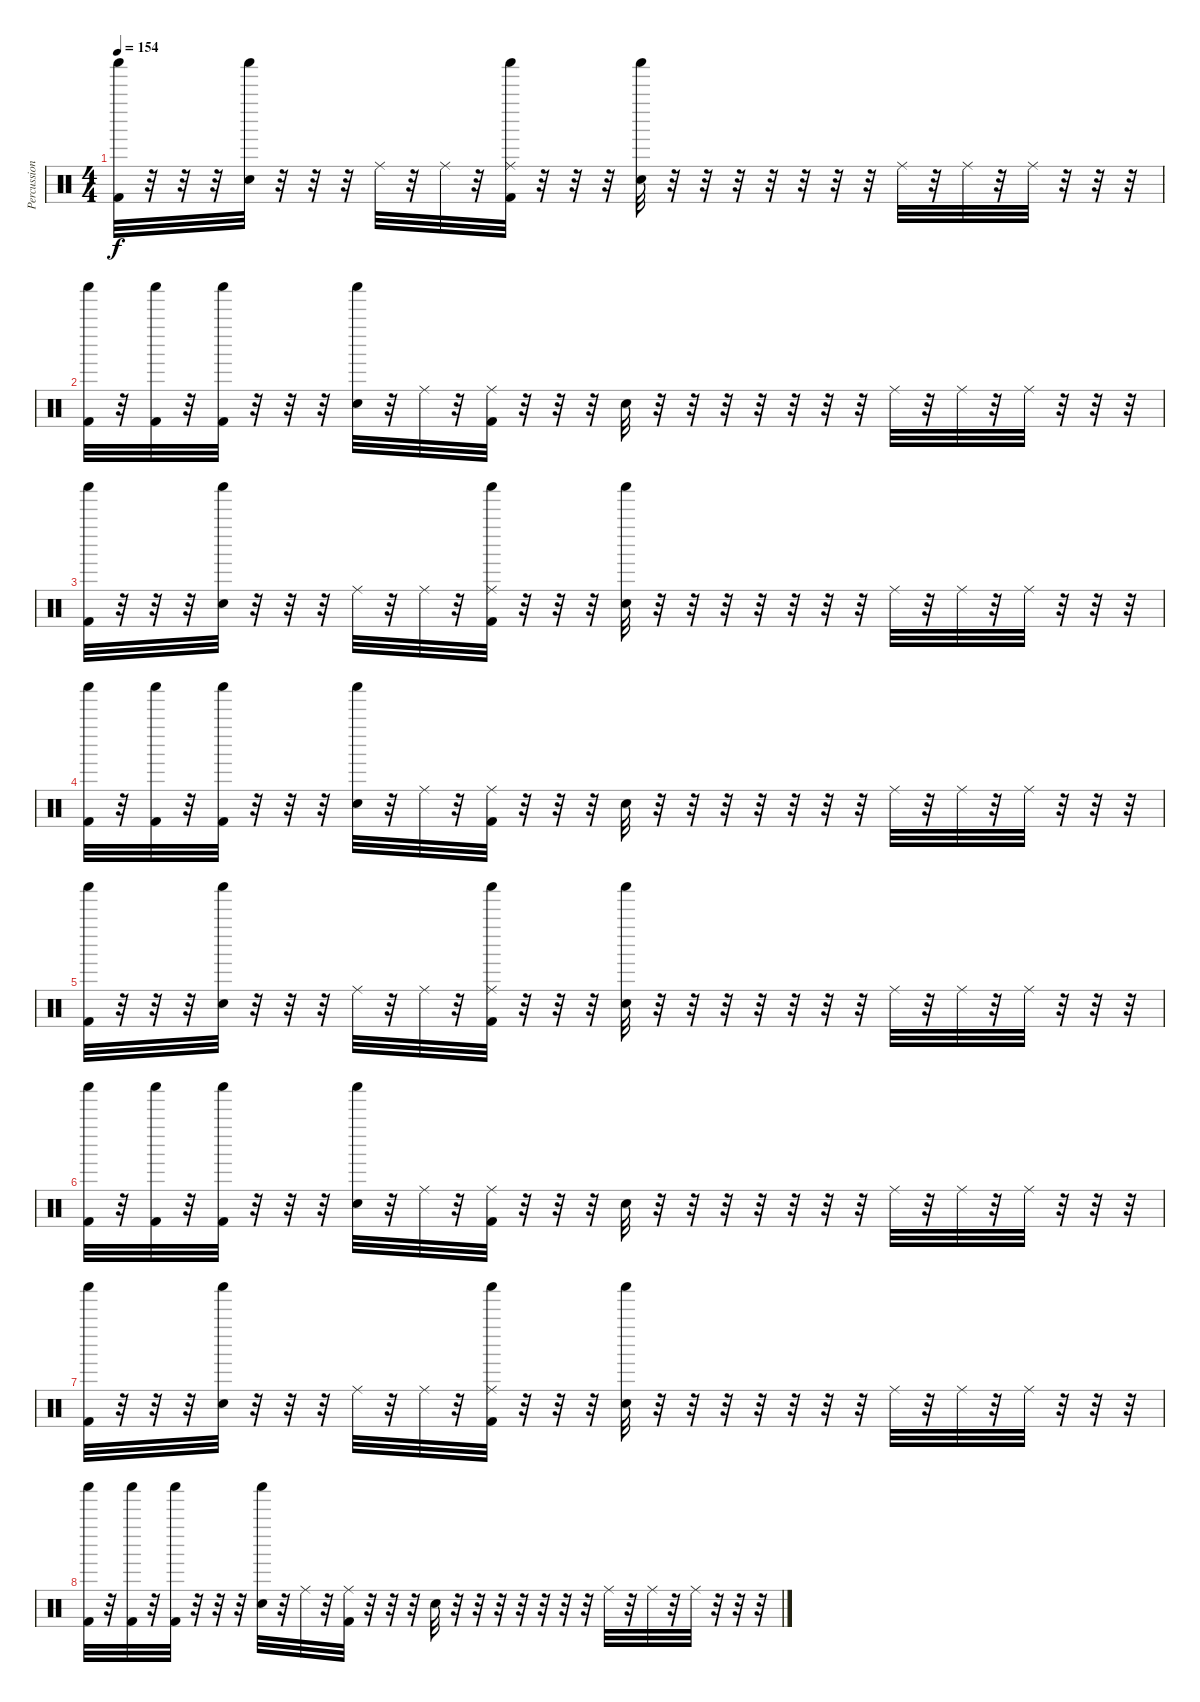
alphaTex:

\track ("Percussion" "Percussion") {instrument percussion}
\staff {score}
\articulation defaults
\ts (4 4)
\tempo 154
\clef neutral
\ks c
("Shaker (hit)" "Kick (hit) 2").32{dy f} r.32 r.32 r.32 ("Shaker (hit)" "Snare (hit) 2").32 r.32 r.32 r.32 "Ride (middle)".32 r.32 "Ride (middle)".32 r.32 ("Shaker (hit)" "Kick (hit) 2" "Ride (middle)").32 r.32 r.32 r.32 ("Shaker (hit)" "Snare (hit) 2").32 r.32 r.32 r.32 r.32 r.32 r.32 r.32 "Ride (middle)".32 r.32 "Ride (middle)".32 r.32 "Ride (middle)".32 r.32 r.32 r.32 |
("Shaker (hit)" "Kick (hit) 2").32 r.32 ("Shaker (hit)" "Kick (hit) 2").32 r.32 ("Shaker (hit)" "Kick (hit) 2").32 r.32 r.32 r.32 ("Shaker (hit)" "Snare (hit) 2").32 r.32 "Ride (middle)".32 r.32 ("Kick (hit) 2" "Ride (middle)").32 r.32 r.32 r.32 "Snare (hit) 2".32 r.32 r.32 r.32 r.32 r.32 r.32 r.32 "Ride (middle)".32 r.32 "Ride (middle)".32 r.32 "Ride (middle)".32 r.32 r.32 r.32 |
("Shaker (hit)" "Kick (hit) 2").32 r.32 r.32 r.32 ("Shaker (hit)" "Snare (hit) 2").32 r.32 r.32 r.32 "Ride (middle)".32 r.32 "Ride (middle)".32 r.32 ("Shaker (hit)" "Kick (hit) 2" "Ride (middle)").32 r.32 r.32 r.32 ("Shaker (hit)" "Snare (hit) 2").32 r.32 r.32 r.32 r.32 r.32 r.32 r.32 "Ride (middle)".32 r.32 "Ride (middle)".32 r.32 "Ride (middle)".32 r.32 r.32 r.32 |
("Shaker (hit)" "Kick (hit) 2").32 r.32 ("Shaker (hit)" "Kick (hit) 2").32 r.32 ("Shaker (hit)" "Kick (hit) 2").32 r.32 r.32 r.32 ("Shaker (hit)" "Snare (hit) 2").32 r.32 "Ride (middle)".32 r.32 ("Kick (hit) 2" "Ride (middle)").32 r.32 r.32 r.32 "Snare (hit) 2".32 r.32 r.32 r.32 r.32 r.32 r.32 r.32 "Ride (middle)".32 r.32 "Ride (middle)".32 r.32 "Ride (middle)".32 r.32 r.32 r.32 |
("Shaker (hit)" "Kick (hit) 2").32 r.32 r.32 r.32 ("Shaker (hit)" "Snare (hit) 2").32 r.32 r.32 r.32 "Ride (middle)".32 r.32 "Ride (middle)".32 r.32 ("Shaker (hit)" "Kick (hit) 2" "Ride (middle)").32 r.32 r.32 r.32 ("Shaker (hit)" "Snare (hit) 2").32 r.32 r.32 r.32 r.32 r.32 r.32 r.32 "Ride (middle)".32 r.32 "Ride (middle)".32 r.32 "Ride (middle)".32 r.32 r.32 r.32 |
("Shaker (hit)" "Kick (hit) 2").32 r.32 ("Shaker (hit)" "Kick (hit) 2").32 r.32 ("Shaker (hit)" "Kick (hit) 2").32 r.32 r.32 r.32 ("Shaker (hit)" "Snare (hit) 2").32 r.32 "Ride (middle)".32 r.32 ("Kick (hit) 2" "Ride (middle)").32 r.32 r.32 r.32 "Snare (hit) 2".32 r.32 r.32 r.32 r.32 r.32 r.32 r.32 "Ride (middle)".32 r.32 "Ride (middle)".32 r.32 "Ride (middle)".32 r.32 r.32 r.32 |
("Shaker (hit)" "Kick (hit) 2").32 r.32 r.32 r.32 ("Shaker (hit)" "Snare (hit) 2").32 r.32 r.32 r.32 "Ride (middle)".32 r.32 "Ride (middle)".32 r.32 ("Shaker (hit)" "Kick (hit) 2" "Ride (middle)").32 r.32 r.32 r.32 ("Shaker (hit)" "Snare (hit) 2").32 r.32 r.32 r.32 r.32 r.32 r.32 r.32 "Ride (middle)".32 r.32 "Ride (middle)".32 r.32 "Ride (middle)".32 r.32 r.32 r.32 |
("Shaker (hit)" "Kick (hit) 2").32 r.32 ("Shaker (hit)" "Kick (hit) 2").32 r.32 ("Shaker (hit)" "Kick (hit) 2").32 r.32 r.32 r.32 ("Shaker (hit)" "Snare (hit) 2").32 r.32 "Ride (middle)".32 r.32 ("Kick (hit) 2" "Ride (middle)").32 r.32 r.32 r.32 "Snare (hit) 2".32 r.32 r.32 r.32 r.32 r.32 r.32 r.32 "Ride (middle)".32 r.32 "Ride (middle)".32 r.32 "Ride (middle)".32 r.32 r.32 r.32
